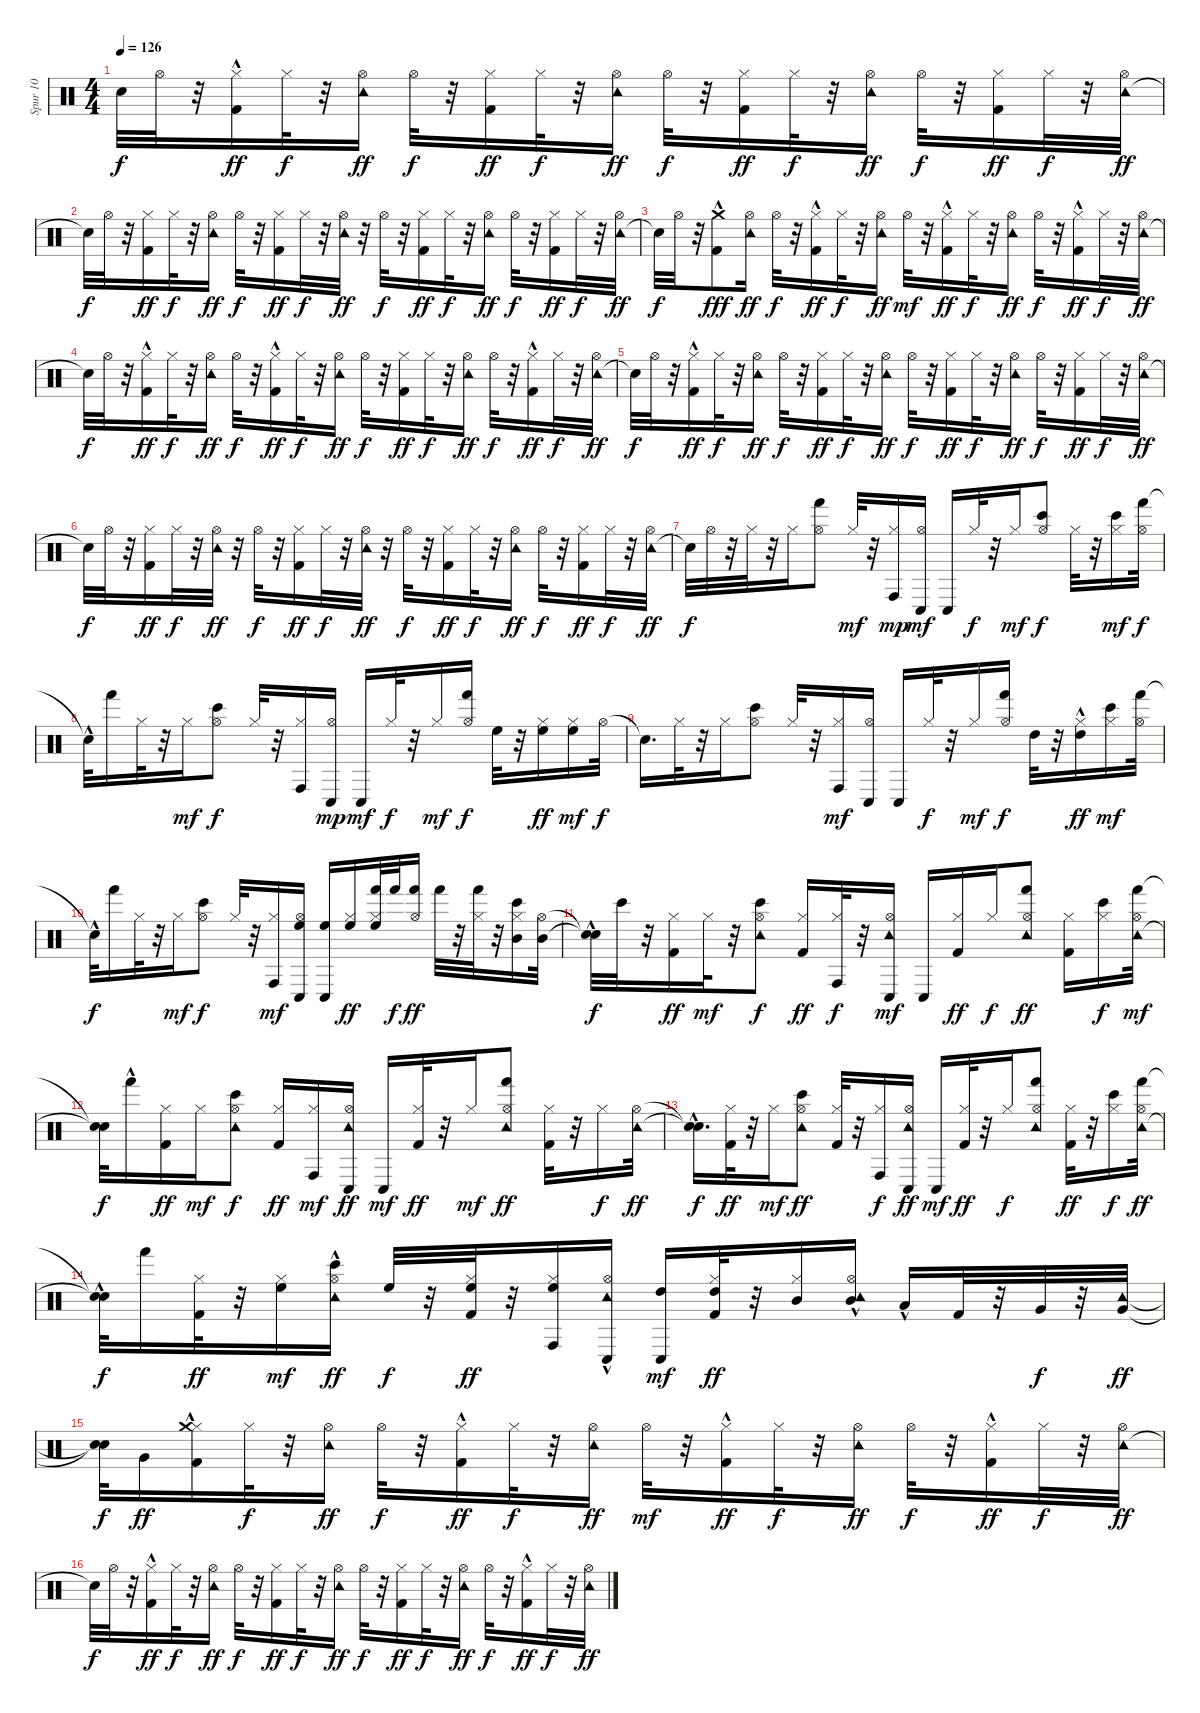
\track ("Spur 10" "Spur 10") {instrument percussion}
\staff {score}
\articulation defaults
\ts (4 4)
\tempo 126
\clef neutral
\ks c "Snare (hit)"{t}.32{dy f} "Hi-Hat (open)".32
r.32 ("Kick (hit) 2"{hac} "Hi-Hat (closed)").16{dy ff} "Hi-Hat (closed)".32{dy f} r.32 ("Tambourine (hit)" "Hi-Hat (open)").16{dy ff} "Hi-Hat (open)".32{dy f} r.32 ("Kick (hit) 2" "Hi-Hat (closed)").16{dy ff} "Hi-Hat (closed)".32{dy f} r.32 ("Tambourine (hit)" "Hi-Hat (open)").16{dy ff} "Hi-Hat (open)".32{dy f} r.32 ("Kick (hit) 2" "Hi-Hat (closed)").16{dy ff} "Hi-Hat (closed)".32{dy f} r.32 ("Tambourine (hit)" "Hi-Hat (open)").16{dy ff} "Hi-Hat (open)".32{dy f} r.32 ("Kick (hit) 2" "Hi-Hat (closed)").16{dy ff} "Hi-Hat (closed)".32{dy f} r.32 ("Tambourine (hit)" "Hi-Hat (open)").32{dy ff} |
"Snare (hit)"{t}.32{dy f} "Hi-Hat (open)".32 r.32 ("Kick (hit) 2" "Hi-Hat (closed)").16{dy ff} "Hi-Hat (closed)".32{dy f} r.32 ("Tambourine (hit)" "Hi-Hat (open)").16{dy ff} "Hi-Hat (open)".32{dy f} r.32 ("Kick (hit) 2" "Hi-Hat (closed)").16{dy ff} "Hi-Hat (closed)".32{dy f} r.32 ("Tambourine (hit)" "Hi-Hat (open)").32{dy ff} r.32 "Hi-Hat (open)".32{dy f} r.32 ("Kick (hit) 2" "Hi-Hat (closed)").16{dy ff} "Hi-Hat (closed)".32{dy f} r.32 ("Tambourine (hit)" "Hi-Hat (open)").16{dy ff} "Hi-Hat (open)".32{dy f} r.32 ("Kick (hit) 2" "Hi-Hat (closed)").16{dy ff} "Hi-Hat (closed)".32{dy f} r.32 ("Tambourine (hit)" "Hi-Hat (open)").32{dy ff} |
"Snare (hit)"{t}.32{dy f} "Hi-Hat (open)".32 r.32 ("Kick (hit) 2"{hac} "Crash medium (hit)").8{dy fff} ("Tambourine (hit)" "Hi-Hat (open)").16{dy ff} "Hi-Hat (open)".32{dy f} r.32 ("Kick (hit) 2"{hac} "Hi-Hat (closed)").16{dy ff} "Hi-Hat (closed)".32{dy f} r.32 ("Tambourine (hit)" "Hi-Hat (open)").16{dy ff} "Hi-Hat (open)".32{dy mf} r.32 ("Kick (hit) 2"{hac} "Hi-Hat (closed)").16{dy ff} "Hi-Hat (closed)".32{dy f} r.32 ("Tambourine (hit)" "Hi-Hat (open)").16{dy ff} "Hi-Hat (open)".32{dy f} r.32 ("Kick (hit) 2"{hac} "Hi-Hat (closed)").16{dy ff} "Hi-Hat (closed)".32{dy f} r.32 ("Tambourine (hit)" "Hi-Hat (open)").32{dy ff} |
"Snare (hit)"{t}.32{dy f} "Hi-Hat (open)".32 r.32 ("Kick (hit) 2"{hac} "Hi-Hat (closed)").16{dy ff} "Hi-Hat (closed)".32{dy f} r.32 ("Tambourine (hit)" "Hi-Hat (open)").16{dy ff} "Hi-Hat (open)".32{dy f} r.32 ("Kick (hit) 2"{hac} "Hi-Hat (closed)").16{dy ff} "Hi-Hat (closed)".32{dy f} r.32 ("Tambourine (hit)" "Hi-Hat (open)").16{dy ff} "Hi-Hat (open)".32{dy f} r.32 ("Kick (hit) 2" "Hi-Hat (closed)").16{dy ff} "Hi-Hat (closed)".32{dy f} r.32 ("Tambourine (hit)" "Hi-Hat (open)").16{dy ff} "Hi-Hat (open)".32{dy f} r.32 ("Kick (hit) 2"{hac} "Hi-Hat (closed)").16{dy ff} "Hi-Hat (closed)".32{dy f} r.32 ("Tambourine (hit)" "Hi-Hat (open)").32{dy ff} |
"Snare (hit)"{t}.32{dy f} "Hi-Hat (open)".32 r.32 ("Kick (hit) 2"{hac} "Hi-Hat (closed)").16{dy ff} "Hi-Hat (closed)".32{dy f} r.32 ("Tambourine (hit)" "Hi-Hat (open)").16{dy ff} "Hi-Hat (open)".32{dy f} r.32 ("Kick (hit) 2" "Hi-Hat (closed)").16{dy ff} "Hi-Hat (closed)".32{dy f} r.32 ("Tambourine (hit)" "Hi-Hat (open)").16{dy ff} "Hi-Hat (open)".32{dy f} r.32 ("Kick (hit) 2" "Hi-Hat (closed)").16{dy ff} "Hi-Hat (closed)".32{dy f} r.32 ("Tambourine (hit)" "Hi-Hat (open)").16{dy ff} "Hi-Hat (open)".32{dy f} r.32 ("Kick (hit) 2" "Hi-Hat (closed)").16{dy ff} "Hi-Hat (closed)".32{dy f} r.32 ("Tambourine (hit)" "Hi-Hat (open)").32{dy ff} |
"Snare (hit)"{t}.32{dy f} "Hi-Hat (open)".32 r.32 ("Kick (hit) 2" "Hi-Hat (closed)").16{dy ff} "Hi-Hat (closed)".32{dy f} r.32 ("Tambourine (hit)" "Hi-Hat (open)").32{dy ff} r.32 "Hi-Hat (open)".32{dy f} r.32 ("Kick (hit) 2" "Hi-Hat (closed)").16{dy ff} "Hi-Hat (closed)".32{dy f} r.32 ("Tambourine (hit)" "Hi-Hat (open)").32{dy ff} r.32 "Hi-Hat (open)".32{dy f} r.32 ("Kick (hit) 2" "Hi-Hat (closed)").16{dy ff} "Hi-Hat (closed)".32{dy f} r.32 ("Tambourine (hit)" "Hi-Hat (open)").16{dy ff} "Hi-Hat (open)".32{dy f} r.32 ("Kick (hit) 2" "Hi-Hat (closed)").16{dy ff} "Hi-Hat (closed)".32{dy f} r.32 ("Tambourine (hit)" "Hi-Hat (open)").32{dy ff} |
"Snare (hit)"{t}.32{dy f} "Hi-Hat (open)".32 r.32 "Hi-Hat (closed)".32 r.32 "Hi-Hat (closed)".16 ("Hand (hit)" "Hi-Hat (open)").8 "Hi-Hat (closed)".32{dy mf} r.32 ("Conga high (hit)" "Hi-Hat (closed)").16{dy mp} ("Conga low (hit)" "Hi-Hat (open)").16{dy mf} "Conga low (hit)".16 "Hi-Hat (closed)".32{dy f} r.32 "Hi-Hat (closed)".16{dy mf} ("Bongo High (hit)" "Hi-Hat (open)").8{dy f} "Hi-Hat (closed)".32 r.32 ("Bongo High (hit)" "Hi-Hat (closed)").16{dy mf} ("Hand (hit)" "Hi-Hat (open)").32{dy f} |
"Snare (hit)"{hac t}.32 "Hand (hit)".16 "Hi-Hat (closed)".32 r.32 "Hi-Hat (closed)".16{dy mf} ("Bongo High (hit)" "Hi-Hat (open)").8{dy f} "Hi-Hat (closed)".32 r.32 ("Conga high (hit)" "Hi-Hat (closed)").16 ("Conga low (hit)" "Hi-Hat (open)").16{dy mp} "Conga low (hit)".16{dy mf} "Hi-Hat (closed)".32{dy f} r.32 "Hi-Hat (closed)".16{dy mf} ("Hand (hit)" "Hi-Hat (open)").16{dy f} "High Floor Tom (hit)".32 r.32 ("High Floor Tom (hit)" "Hi-Hat (closed)").16{dy ff} ("High Floor Tom (hit)" "Hi-Hat (closed)").16{dy mf} "Hi-Hat (open)".32{dy f} |
"Snare (hit)"{t}.16{d} "Hi-Hat (closed)".32 r.32 "Hi-Hat (closed)".16 ("Bongo High (hit)" "Hi-Hat (open)").8 "Hi-Hat (closed)".32 r.32 ("Conga high (hit)" "Hi-Hat (closed)").16{dy mf} ("Conga low (hit)" "Hi-Hat (open)").16 "Conga low (hit)".16 "Hi-Hat (closed)".32{dy f} r.32 "Hi-Hat (closed)".16{dy mf} ("Hand (hit)" "Hi-Hat (open)").16{dy f} "High Tom (hit)".32 r.32 ("High Tom (hit)"{hac} "Hi-Hat (closed)").16{dy ff} ("Bongo High (hit)" "Hi-Hat (closed)").16{dy mf} ("Hand (hit)" "Hi-Hat (open)").32 |
"Snare (hit)"{hac t}.32{dy f} "Hand (hit)".16 "Hi-Hat (closed)".32 r.32 "Hi-Hat (closed)".16{dy mf} ("Bongo High (hit)" "Hi-Hat (open)").8{dy f} "Hi-Hat (closed)".32 r.32 ("Conga high (hit)" "Hi-Hat (closed)").16{dy mf} ("High Floor Tom (hit)" "Conga low (hit)" "Hi-Hat (open)").16 ("High Floor Tom (hit)" "Conga low (hit)").16 ("High Floor Tom (hit)" "Hi-Hat (closed)").16{dy ff} ("Hand (hit)" "High Floor Tom (hit)" "Hi-Hat (closed)").32 "Hand (hit)".32{dy f} ("Hand (hit)" "Hi-Hat (open)").16{dy ff} "Hand (hit)".32 r.32 ("Hand (hit)" "Hi-Hat (closed)").32 r.32 ("Bongo High (hit)" "Mid Tom (hit)" "Hi-Hat (closed)").16 ("Mid Tom (hit)" "Hi-Hat (open)").32 |
("Snare (hit)"{t} "Snare (hit)"{hac t}).32{dy f} "Bongo High (hit)".32 r.32 ("Kick (hit) 2" "Hi-Hat (closed)").16{dy ff} "Hi-Hat (closed)".32{dy mf} r.32 ("Bongo High (hit)" "Tambourine (hit)" "Hi-Hat (open)").8{dy f} ("Kick (hit) 2" "Hi-Hat (closed)").16{dy ff} ("Conga high (hit)" "Hi-Hat (closed)").32{dy f} r.32 ("Conga low (hit)" "Tambourine (hit)" "Hi-Hat (open)").16{dy mf} "Conga low (hit)".16 ("Kick (hit) 2" "Hi-Hat (closed)").16{dy ff} "Hi-Hat (closed)".16{dy f} ("Hand (hit)" "Tambourine (hit)" "Hi-Hat (open)").8{dy ff} ("Kick (hit) 2" "Hi-Hat (closed)").16 ("Bongo High (hit)" "Hi-Hat (closed)").16{dy f} ("Hand (hit)" "Tambourine (hit)" "Hi-Hat (open)").32{dy mf} |
("Snare (hit)"{t} "Snare (hit)"{t}).32{dy f} "Hand (hit)"{hac}.16 ("Kick (hit) 2" "Hi-Hat (closed)").16{dy ff} "Hi-Hat (closed)".16{dy mf} ("Bongo High (hit)" "Tambourine (hit)" "Hi-Hat (open)").8{dy f} ("Kick (hit) 2" "Hi-Hat (closed)").16{dy ff} ("Conga high (hit)" "Hi-Hat (closed)").16{dy mf} ("Conga low (hit)" "Tambourine (hit)" "Hi-Hat (open)").16{dy ff} "Conga low (hit)".16{dy mf} ("Kick (hit) 2" "Hi-Hat (closed)").32{dy ff} r.32 "Hi-Hat (closed)".16{dy mf} ("Hand (hit)" "Tambourine (hit)" "Hi-Hat (open)").8{dy ff} ("Kick (hit) 2" "Hi-Hat (closed)").32 r.32 "Hi-Hat (closed)".16{dy f} ("Tambourine (hit)" "Hi-Hat (open)").32{dy ff} |
("Snare (hit)"{t} "Snare (hit)"{hac t}).16{d dy f} ("Kick (hit) 2" "Hi-Hat (closed)").32{dy ff} r.32 "Hi-Hat (closed)".16{dy mf} ("Bongo High (hit)" "Tambourine (hit)" "Hi-Hat (open)").8{dy ff} ("Kick (hit) 2" "Hi-Hat (closed)").32 r.32 ("Conga high (hit)" "Hi-Hat (closed)").16{dy f} ("Conga low (hit)" "Tambourine (hit)" "Hi-Hat (open)").16{dy ff} "Conga low (hit)".16{dy mf} ("Kick (hit) 2" "Hi-Hat (closed)").32{dy ff} r.32 "Hi-Hat (closed)".16{dy f} ("Hand (hit)" "Tambourine (hit)" "Hi-Hat (open)").8 ("Kick (hit) 2" "Hi-Hat (closed)").32{dy ff} r.32 ("Bongo High (hit)" "Hi-Hat (closed)").16{dy f} ("Hand (hit)" "Tambourine (hit)" "Hi-Hat (open)").32{dy ff} |
("Snare (hit)"{t} "Snare (hit)"{hac t}).32{dy f} "Hand (hit)".16 ("Kick (hit) 2" "Hi-Hat (closed)").32{dy ff} r.32 ("High Floor Tom (hit)" "Hi-Hat (closed)").16{dy mf} ("Bongo High (hit)" "Tambourine (hit)"{hac} "Hi-Hat (open)").16{dy ff} "High Floor Tom (hit)".32{dy f} r.32 ("High Floor Tom (hit)" "Kick (hit) 2" "Hi-Hat (closed)").32{dy ff} r.32 ("High Floor Tom (hit)" "Conga high (hit)" "Hi-Hat (closed)").16 ("Conga low (hit)" "Tambourine (hit)"{hac} "Hi-Hat (open)").16 ("High Tom (hit)" "Conga low (hit)").16{dy mf} ("High Tom (hit)" "Kick (hit) 2" "Hi-Hat (closed)").32{dy ff} r.32 ("Mid Tom (hit)" "Hi-Hat (closed)").16 ("Mid Tom (hit)" "Tambourine (hit)"{hac} "Hi-Hat (open)"{hac}).16 "Low Tom (hit)"{hac}.16 "Kick (hit) 2".32 r.32 "Very Low Tom (hit)".32{dy f} r.32 ("Very Low Tom (hit)" "Tambourine (hit)").32{dy ff} |
("Snare (hit)"{t} "Snare (hit)"{t}).32{dy f} "Very Low Tom (hit)".16{dy ff} ("Kick (hit) 2"{hac} "Hi-Hat (closed)" "Crash medium (hit)").16 "Hi-Hat (closed)".32{dy f} r.32 ("Tambourine (hit)" "Hi-Hat (open)").16{dy ff} "Hi-Hat (open)".32{dy f} r.32 ("Kick (hit) 2"{hac} "Hi-Hat (closed)").16{dy ff} "Hi-Hat (closed)".32{dy f} r.32 ("Tambourine (hit)" "Hi-Hat (open)").16{dy ff} "Hi-Hat (open)".32{dy mf} r.32 ("Kick (hit) 2"{hac} "Hi-Hat (closed)").16{dy ff} "Hi-Hat (closed)".32{dy f} r.32 ("Tambourine (hit)" "Hi-Hat (open)").16{dy ff} "Hi-Hat (open)".32{dy f} r.32 ("Kick (hit) 2"{hac} "Hi-Hat (closed)").16{dy ff} "Hi-Hat (closed)".32{dy f} r.32 ("Tambourine (hit)" "Hi-Hat (open)").32{dy ff} |
"Snare (hit)"{t}.32{dy f} "Hi-Hat (open)".32 r.32 ("Kick (hit) 2"{hac} "Hi-Hat (closed)").16{dy ff} "Hi-Hat (closed)".32{dy f} r.32 ("Tambourine (hit)" "Hi-Hat (open)").16{dy ff} "Hi-Hat (open)".32{dy f} r.32 ("Kick (hit) 2" "Hi-Hat (closed)").16{dy ff} "Hi-Hat (closed)".32{dy f} r.32 ("Tambourine (hit)" "Hi-Hat (open)").16{dy ff} "Hi-Hat (open)".32{dy f} r.32 ("Kick (hit) 2" "Hi-Hat (closed)").16{dy ff} "Hi-Hat (closed)".32{dy f} r.32 ("Tambourine (hit)" "Hi-Hat (open)").16{dy ff} "Hi-Hat (open)".32{dy f} r.32 ("Kick (hit) 2"{hac} "Hi-Hat (closed)").16{dy ff} "Hi-Hat (closed)".32{dy f} r.32 ("Tambourine (hit)" "Hi-Hat (open)").32{dy ff}
